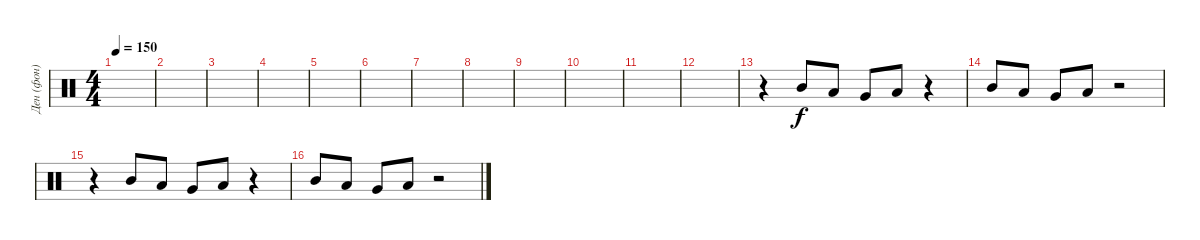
\track ("Ден (фон)" "Ден (фон)") {instrument percussion}
\staff {score}
\articulation defaults
\ts (4 4)
\tempo 150
\clef neutral
\ks c
|
|
|
|
|
|
|
|
|
|
|
|
r.4 "Mid Tom (hit)".8 "Low Tom (hit)".8 "Very Low Tom (hit)".8 "Low Floor Tom (hit)".8 r.4 |
"Mid Tom (hit)".8 "Low Tom (hit)".8 "Very Low Tom (hit)".8 "Low Floor Tom (hit)".8 r.2 |
r.4 "Mid Tom (hit)".8 "Low Tom (hit)".8 "Very Low Tom (hit)".8 "Low Floor Tom (hit)".8 r.4 |
"Mid Tom (hit)".8 "Low Tom (hit)".8 "Very Low Tom (hit)".8 "Low Floor Tom (hit)".8 r.2
